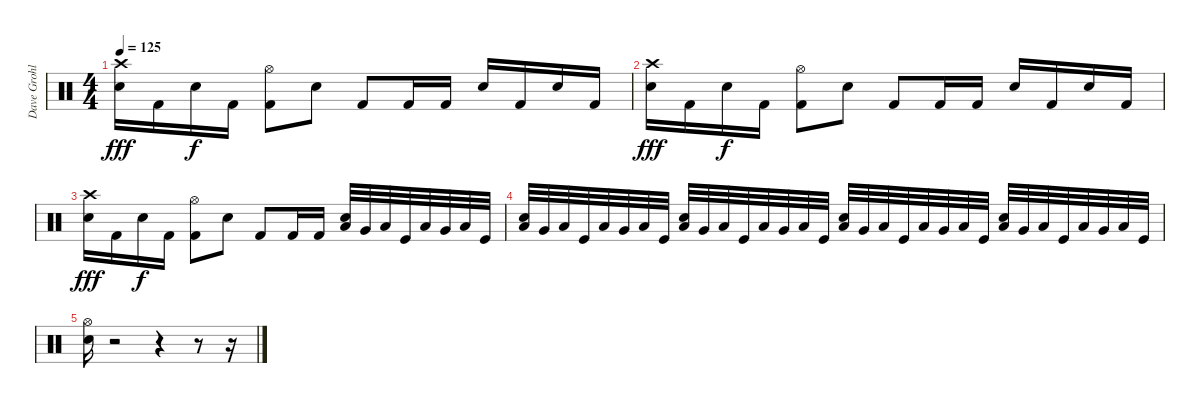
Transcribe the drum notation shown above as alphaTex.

\track ("Dave Grohl" "Dave Grohl") {instrument percussion}
\staff {score}
\articulation defaults
\ts (4 4)
\tempo 125
\clef neutral
\ks c
("Crash high (hit)" "Snare (hit) 2").16{dy fff} "Kick (hit) 2".16 "Snare (hit) 2".16{dy f} "Kick (hit) 2".16 ("Hi-Hat (open)" "Kick (hit) 2").8 "Snare (hit) 2".8 "Kick (hit) 2".8 "Kick (hit) 2".16 "Kick (hit) 2".16 "Snare (hit) 2".16 "Kick (hit) 2".16 "Snare (hit) 2".16 "Kick (hit) 2".16 |
("Crash high (hit)" "Snare (hit) 2").16{dy fff} "Kick (hit) 2".16 "Snare (hit) 2".16{dy f} "Kick (hit) 2".16 ("Hi-Hat (open)" "Kick (hit) 2").8 "Snare (hit) 2".8 "Kick (hit) 2".8 "Kick (hit) 2".16 "Kick (hit) 2".16 "Snare (hit) 2".16 "Kick (hit) 2".16 "Snare (hit) 2".16 "Kick (hit) 2".16 |
("Crash high (hit)" "Snare (hit) 2").16{dy fff} "Kick (hit) 2".16 "Snare (hit) 2".16{dy f} "Kick (hit) 2".16 ("Hi-Hat (open)" "Kick (hit) 2").8 "Snare (hit) 2".8 "Kick (hit) 2".8 "Kick (hit) 2".16 "Kick (hit) 2".16 ("Snare (hit) 2" "Low Tom (hit)").32 "Very Low Tom (hit)".32 "Low Floor Tom (hit)".32 "Kick (hit)".32 "Low Tom (hit)".32 "Very Low Tom (hit)".32 "Low Floor Tom (hit)".32 "Kick (hit)".32 |
("Snare (hit) 2" "Low Tom (hit)").32 "Very Low Tom (hit)".32 "Low Floor Tom (hit)".32 "Kick (hit)".32 "Low Tom (hit)".32 "Very Low Tom (hit)".32 "Low Floor Tom (hit)".32 "Kick (hit)".32 ("Snare (hit) 2" "Low Tom (hit)").32 "Very Low Tom (hit)".32 "Low Floor Tom (hit)".32 "Kick (hit)".32 "Low Tom (hit)".32 "Very Low Tom (hit)".32 "Low Floor Tom (hit)".32 "Kick (hit)".32 ("Snare (hit) 2" "Low Tom (hit)").32 "Very Low Tom (hit)".32 "Low Floor Tom (hit)".32 "Kick (hit)".32 "Low Tom (hit)".32 "Very Low Tom (hit)".32 "Low Floor Tom (hit)".32 "Kick (hit)".32 ("Snare (hit) 2" "Low Tom (hit)").32 "Very Low Tom (hit)".32 "Low Floor Tom (hit)".32 "Kick (hit)".32 "Low Tom (hit)".32 "Very Low Tom (hit)".32 "Low Floor Tom (hit)".32 "Kick (hit)".32 |
("Hi-Hat (open)" "Snare (hit) 2").16 r.2 r.4 r.8 r.16
